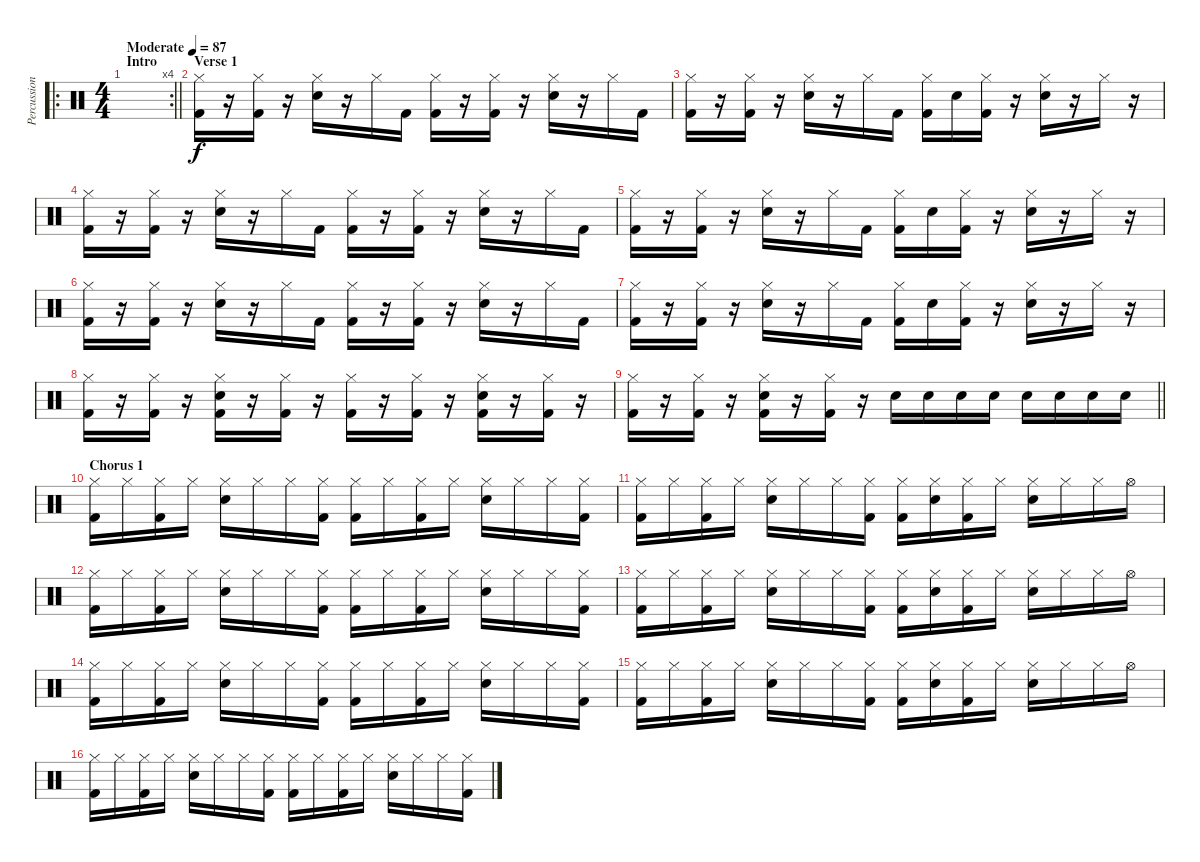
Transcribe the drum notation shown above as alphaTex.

\track ("Percussion" "Percussion") {instrument percussion}
\staff {score}
\articulation defaults
\ro
\rc 4
\ts (4 4)
\section ("" "Intro")
\tempo (87 "Moderate")
\clef neutral
\barLineRight lightlight
\ks c
|
\section ("" "Verse 1")
("Hi-Hat (closed)" "Kick (hit) 2").16 r.16 ("Hi-Hat (closed)" "Kick (hit) 2").16 r.16 ("Hi-Hat (closed)" "Snare (hit) 2").16 r.16 "Hi-Hat (closed)".16 "Kick (hit) 2".16 ("Hi-Hat (closed)" "Kick (hit) 2").16 r.16 ("Hi-Hat (closed)" "Kick (hit) 2").16 r.16 ("Hi-Hat (closed)" "Snare (hit) 2").16 r.16 "Hi-Hat (closed)".16 "Kick (hit) 2".16 |
("Hi-Hat (closed)" "Kick (hit) 2").16 r.16 ("Hi-Hat (closed)" "Kick (hit) 2").16 r.16 ("Hi-Hat (closed)" "Snare (hit) 2").16 r.16 "Hi-Hat (closed)".16 "Kick (hit) 2".16 ("Hi-Hat (closed)" "Kick (hit) 2").16 "Snare (hit) 2".16 ("Hi-Hat (closed)" "Kick (hit) 2").16 r.16 ("Hi-Hat (closed)" "Snare (hit) 2").16 r.16 "Hi-Hat (closed)".16 r.16 |
("Hi-Hat (closed)" "Kick (hit) 2").16 r.16 ("Hi-Hat (closed)" "Kick (hit) 2").16 r.16 ("Hi-Hat (closed)" "Snare (hit) 2").16 r.16 "Hi-Hat (closed)".16 "Kick (hit) 2".16 ("Hi-Hat (closed)" "Kick (hit) 2").16 r.16 ("Hi-Hat (closed)" "Kick (hit) 2").16 r.16 ("Hi-Hat (closed)" "Snare (hit) 2").16 r.16 "Hi-Hat (closed)".16 "Kick (hit) 2".16 |
("Hi-Hat (closed)" "Kick (hit) 2").16 r.16 ("Hi-Hat (closed)" "Kick (hit) 2").16 r.16 ("Hi-Hat (closed)" "Snare (hit) 2").16 r.16 "Hi-Hat (closed)".16 "Kick (hit) 2".16 ("Hi-Hat (closed)" "Kick (hit) 2").16 "Snare (hit) 2".16 ("Hi-Hat (closed)" "Kick (hit) 2").16 r.16 ("Hi-Hat (closed)" "Snare (hit) 2").16 r.16 "Hi-Hat (closed)".16 r.16 |
("Hi-Hat (closed)" "Kick (hit) 2").16 r.16 ("Hi-Hat (closed)" "Kick (hit) 2").16 r.16 ("Hi-Hat (closed)" "Snare (hit) 2").16 r.16 "Hi-Hat (closed)".16 "Kick (hit) 2".16 ("Hi-Hat (closed)" "Kick (hit) 2").16 r.16 ("Hi-Hat (closed)" "Kick (hit) 2").16 r.16 ("Hi-Hat (closed)" "Snare (hit) 2").16 r.16 "Hi-Hat (closed)".16 "Kick (hit) 2".16 |
("Hi-Hat (closed)" "Kick (hit) 2").16 r.16 ("Hi-Hat (closed)" "Kick (hit) 2").16 r.16 ("Hi-Hat (closed)" "Snare (hit) 2").16 r.16 "Hi-Hat (closed)".16 "Kick (hit) 2".16 ("Hi-Hat (closed)" "Kick (hit) 2").16 "Snare (hit) 2".16 ("Hi-Hat (closed)" "Kick (hit) 2").16 r.16 ("Hi-Hat (closed)" "Snare (hit) 2").16 r.16 "Hi-Hat (closed)".16 r.16 |
("Hi-Hat (closed)" "Kick (hit) 2").16 r.16 ("Hi-Hat (closed)" "Kick (hit) 2").16 r.16 ("Hi-Hat (closed)" "Snare (hit) 2" "Kick (hit) 2").16 r.16 ("Hi-Hat (closed)" "Kick (hit) 2").16 r.16 ("Hi-Hat (closed)" "Kick (hit) 2").16 r.16 ("Hi-Hat (closed)" "Kick (hit) 2").16 r.16 ("Hi-Hat (closed)" "Snare (hit) 2" "Kick (hit) 2").16 r.16 ("Hi-Hat (closed)" "Kick (hit) 2").16 r.16 |
\barLineRight lightlight
("Hi-Hat (closed)" "Kick (hit) 2").16 r.16 ("Hi-Hat (closed)" "Kick (hit) 2").16 r.16 ("Hi-Hat (closed)" "Snare (hit) 2" "Kick (hit) 2").16 r.16 ("Hi-Hat (closed)" "Kick (hit) 2").16 r.16 "Snare (hit) 2".16 "Snare (hit) 2".16 "Snare (hit) 2".16 "Snare (hit) 2".16 "Snare (hit) 2".16 "Snare (hit) 2".16 "Snare (hit) 2".16 "Snare (hit) 2".16 |
\section ("" "Chorus 1")
("Hi-Hat (closed)" "Kick (hit) 2").16 "Hi-Hat (closed)".16 ("Hi-Hat (closed)" "Kick (hit) 2").16 "Hi-Hat (closed)".16 ("Hi-Hat (closed)" "Snare (hit) 2").16 "Hi-Hat (closed)".16 "Hi-Hat (closed)".16 ("Hi-Hat (closed)" "Kick (hit) 2").16 ("Hi-Hat (closed)" "Kick (hit) 2").16 "Hi-Hat (closed)".16 ("Hi-Hat (closed)" "Kick (hit) 2").16 "Hi-Hat (closed)".16 ("Hi-Hat (closed)" "Snare (hit) 2").16 "Hi-Hat (closed)".16 "Hi-Hat (closed)".16 ("Hi-Hat (closed)" "Kick (hit) 2").16 |
("Hi-Hat (closed)" "Kick (hit) 2").16 "Hi-Hat (closed)".16 ("Hi-Hat (closed)" "Kick (hit) 2").16 "Hi-Hat (closed)".16 ("Hi-Hat (closed)" "Snare (hit) 2").16 "Hi-Hat (closed)".16 "Hi-Hat (closed)".16 ("Hi-Hat (closed)" "Kick (hit) 2").16 ("Hi-Hat (closed)" "Kick (hit) 2").16 ("Hi-Hat (closed)" "Snare (hit) 2").16 ("Hi-Hat (closed)" "Kick (hit) 2").16 "Hi-Hat (closed)".16 ("Hi-Hat (closed)" "Snare (hit) 2").16 "Hi-Hat (closed)".16 "Hi-Hat (closed)".16 "Hi-Hat (open)".16 |
("Hi-Hat (closed)" "Kick (hit) 2").16 "Hi-Hat (closed)".16 ("Hi-Hat (closed)" "Kick (hit) 2").16 "Hi-Hat (closed)".16 ("Hi-Hat (closed)" "Snare (hit) 2").16 "Hi-Hat (closed)".16 "Hi-Hat (closed)".16 ("Hi-Hat (closed)" "Kick (hit) 2").16 ("Hi-Hat (closed)" "Kick (hit) 2").16 "Hi-Hat (closed)".16 ("Hi-Hat (closed)" "Kick (hit) 2").16 "Hi-Hat (closed)".16 ("Hi-Hat (closed)" "Snare (hit) 2").16 "Hi-Hat (closed)".16 "Hi-Hat (closed)".16 ("Hi-Hat (closed)" "Kick (hit) 2").16 |
("Hi-Hat (closed)" "Kick (hit) 2").16 "Hi-Hat (closed)".16 ("Hi-Hat (closed)" "Kick (hit) 2").16 "Hi-Hat (closed)".16 ("Hi-Hat (closed)" "Snare (hit) 2").16 "Hi-Hat (closed)".16 "Hi-Hat (closed)".16 ("Hi-Hat (closed)" "Kick (hit) 2").16 ("Hi-Hat (closed)" "Kick (hit) 2").16 ("Hi-Hat (closed)" "Snare (hit) 2").16 ("Hi-Hat (closed)" "Kick (hit) 2").16 "Hi-Hat (closed)".16 ("Hi-Hat (closed)" "Snare (hit) 2").16 "Hi-Hat (closed)".16 "Hi-Hat (closed)".16 "Hi-Hat (open)".16 |
("Hi-Hat (closed)" "Kick (hit) 2").16 "Hi-Hat (closed)".16 ("Hi-Hat (closed)" "Kick (hit) 2").16 "Hi-Hat (closed)".16 ("Hi-Hat (closed)" "Snare (hit) 2").16 "Hi-Hat (closed)".16 "Hi-Hat (closed)".16 ("Hi-Hat (closed)" "Kick (hit) 2").16 ("Hi-Hat (closed)" "Kick (hit) 2").16 "Hi-Hat (closed)".16 ("Hi-Hat (closed)" "Kick (hit) 2").16 "Hi-Hat (closed)".16 ("Hi-Hat (closed)" "Snare (hit) 2").16 "Hi-Hat (closed)".16 "Hi-Hat (closed)".16 ("Hi-Hat (closed)" "Kick (hit) 2").16 |
("Hi-Hat (closed)" "Kick (hit) 2").16 "Hi-Hat (closed)".16 ("Hi-Hat (closed)" "Kick (hit) 2").16 "Hi-Hat (closed)".16 ("Hi-Hat (closed)" "Snare (hit) 2").16 "Hi-Hat (closed)".16 "Hi-Hat (closed)".16 ("Hi-Hat (closed)" "Kick (hit) 2").16 ("Hi-Hat (closed)" "Kick (hit) 2").16 ("Hi-Hat (closed)" "Snare (hit) 2").16 ("Hi-Hat (closed)" "Kick (hit) 2").16 "Hi-Hat (closed)".16 ("Hi-Hat (closed)" "Snare (hit) 2").16 "Hi-Hat (closed)".16 "Hi-Hat (closed)".16 "Hi-Hat (open)".16 |
("Hi-Hat (closed)" "Kick (hit) 2").16 "Hi-Hat (closed)".16 ("Hi-Hat (closed)" "Kick (hit) 2").16 "Hi-Hat (closed)".16 ("Hi-Hat (closed)" "Snare (hit) 2").16 "Hi-Hat (closed)".16 "Hi-Hat (closed)".16 ("Hi-Hat (closed)" "Kick (hit) 2").16 ("Hi-Hat (closed)" "Kick (hit) 2").16 "Hi-Hat (closed)".16 ("Hi-Hat (closed)" "Kick (hit) 2").16 "Hi-Hat (closed)".16 ("Hi-Hat (closed)" "Snare (hit) 2").16 "Hi-Hat (closed)".16 "Hi-Hat (closed)".16 ("Hi-Hat (closed)" "Kick (hit) 2").16
